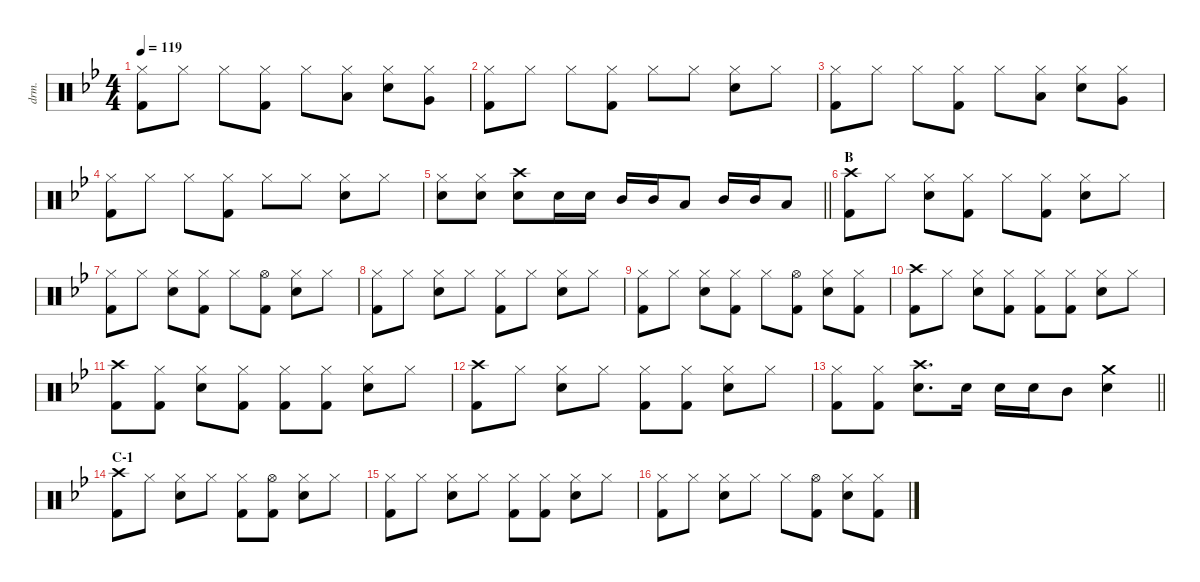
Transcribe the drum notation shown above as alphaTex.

\defaultSystemsLayout 4
\hideDynamics
\bracketExtendMode nobrackets
\otherSystemsTrackNameOrientation horizontal
\track ("Drums" "drm.") {instrument percussion}
\staff {score}
\articulation defaults
\ts (4 4)
\tempo 119
\clef neutral
\ks bb
("Hi-Hat (closed)"{acc forcenatural} "Kick (hit) 2"{acc forcenatural}).8{dy f} "Hi-Hat (closed)"{acc forcenatural}.8 "Hi-Hat (closed)"{acc forcenatural}.8 ("Hi-Hat (closed)"{acc forcenatural} "Kick (hit) 2"{acc forcenatural}).8 "Hi-Hat (closed)"{acc forcenatural}.8 ("Low Tom (hit)"{acc forcenatural} "Hi-Hat (closed)"{acc forcenatural}).8 ("Hi-Hat (closed)"{acc forcenatural} "Snare (hit) 2"{acc forcenatural}).8 ("Very Low Tom (hit)"{acc forcenatural} "Hi-Hat (closed)"{acc forcenatural}).8 |
("Hi-Hat (closed)"{acc forcenatural} "Kick (hit) 2"{acc forcenatural}).8 "Hi-Hat (closed)"{acc forcenatural}.8 "Hi-Hat (closed)"{acc forcenatural}.8 ("Hi-Hat (closed)"{acc forcenatural} "Kick (hit) 2"{acc forcenatural}).8 "Hi-Hat (closed)"{acc forcenatural}.8 "Hi-Hat (closed)"{acc forcenatural}.8 ("Hi-Hat (closed)"{acc forcenatural} "Snare (hit) 2"{acc forcenatural}).8 "Hi-Hat (closed)"{acc forcenatural}.8 |
("Hi-Hat (closed)"{acc forcenatural} "Kick (hit) 2"{acc forcenatural}).8 "Hi-Hat (closed)"{acc forcenatural}.8 "Hi-Hat (closed)"{acc forcenatural}.8 ("Hi-Hat (closed)"{acc forcenatural} "Kick (hit) 2"{acc forcenatural}).8 "Hi-Hat (closed)"{acc forcenatural}.8 ("Low Tom (hit)"{acc forcenatural} "Hi-Hat (closed)"{acc forcenatural}).8 ("Hi-Hat (closed)"{acc forcenatural} "Snare (hit) 2"{acc forcenatural}).8 ("Very Low Tom (hit)"{acc forcenatural} "Hi-Hat (closed)"{acc forcenatural}).8 |
("Hi-Hat (closed)"{acc forcenatural} "Kick (hit) 2"{acc forcenatural}).8 "Hi-Hat (closed)"{acc forcenatural}.8 "Hi-Hat (closed)"{acc forcenatural}.8 ("Hi-Hat (closed)"{acc forcenatural} "Kick (hit) 2"{acc forcenatural}).8 "Hi-Hat (closed)"{acc forcenatural}.8 "Hi-Hat (closed)"{acc forcenatural}.8 ("Hi-Hat (closed)"{acc forcenatural} "Snare (hit) 2"{acc forcenatural}).8 "Hi-Hat (closed)"{acc forcenatural}.8 |
\barLineRight lightlight
("Hi-Hat (closed)"{acc forcenatural} "Snare (hit) 2"{acc forcenatural}).8 ("Hi-Hat (closed)"{acc forcenatural} "Snare (hit) 2"{acc forcenatural}).8 ("Crash high (hit)"{acc forcenatural} "Snare (hit) 2"{acc forcenatural}).8 "Snare (hit) 2"{acc forcenatural}.16 "Snare (hit) 2"{acc forcenatural}.16 "Mid Tom (hit)"{acc forcenatural}.16 "Mid Tom (hit)"{acc forcenatural}.16 "Low Tom (hit)"{acc forcenatural}.8 "Mid Tom (hit)"{acc forcenatural}.16 "Mid Tom (hit)"{acc forcenatural}.16 "Low Tom (hit)"{acc forcenatural}.8 |
\section ("" "B")
("Crash high (hit)"{acc forcenatural} "Kick (hit) 2"{acc forcenatural}).8 "Hi-Hat (closed)"{acc forcenatural}.8 ("Hi-Hat (closed)"{acc forcenatural} "Snare (hit) 2"{acc forcenatural}).8 ("Hi-Hat (closed)"{acc forcenatural} "Kick (hit) 2"{acc forcenatural}).8 "Hi-Hat (closed)"{acc forcenatural}.8 ("Hi-Hat (closed)"{acc forcenatural} "Kick (hit) 2"{acc forcenatural}).8 ("Hi-Hat (closed)"{acc forcenatural} "Snare (hit) 2"{acc forcenatural}).8 "Hi-Hat (closed)"{acc forcenatural}.8 |
("Hi-Hat (closed)"{acc forcenatural} "Kick (hit) 2"{acc forcenatural}).8 "Hi-Hat (closed)"{acc forcenatural}.8 ("Hi-Hat (closed)"{acc forcenatural} "Snare (hit) 2"{acc forcenatural}).8 ("Hi-Hat (closed)"{acc forcenatural} "Kick (hit) 2"{acc forcenatural}).8 "Hi-Hat (closed)"{acc forcenatural}.8 ("Hi-Hat (open)"{acc forcenatural} "Kick (hit) 2"{acc forcenatural}).8 ("Hi-Hat (closed)"{acc forcenatural} "Snare (hit) 2"{acc forcenatural}).8 "Hi-Hat (closed)"{acc forcenatural}.8 |
("Hi-Hat (closed)"{acc forcenatural} "Kick (hit) 2"{acc forcenatural}).8 "Hi-Hat (closed)"{acc forcenatural}.8 ("Hi-Hat (closed)"{acc forcenatural} "Snare (hit) 2"{acc forcenatural}).8 "Hi-Hat (closed)"{acc forcenatural}.8 ("Hi-Hat (closed)"{acc forcenatural} "Kick (hit) 2"{acc forcenatural}).8 "Hi-Hat (closed)"{acc forcenatural}.8 ("Hi-Hat (closed)"{acc forcenatural} "Snare (hit) 2"{acc forcenatural}).8 "Hi-Hat (closed)"{acc forcenatural}.8 |
("Hi-Hat (closed)"{acc forcenatural} "Kick (hit) 2"{acc forcenatural}).8 "Hi-Hat (closed)"{acc forcenatural}.8 ("Hi-Hat (closed)"{acc forcenatural} "Snare (hit) 2"{acc forcenatural}).8 ("Hi-Hat (closed)"{acc forcenatural} "Kick (hit) 2"{acc forcenatural}).8 "Hi-Hat (closed)"{acc forcenatural}.8 ("Hi-Hat (open)"{acc forcenatural} "Kick (hit) 2"{acc forcenatural}).8 ("Hi-Hat (closed)"{acc forcenatural} "Snare (hit) 2"{acc forcenatural}).8 ("Hi-Hat (closed)"{acc forcenatural} "Kick (hit) 2"{acc forcenatural}).8 |
("Crash high (hit)"{acc forcenatural} "Kick (hit) 2"{acc forcenatural}).8 "Hi-Hat (closed)"{acc forcenatural}.8 ("Hi-Hat (closed)"{acc forcenatural} "Snare (hit) 2"{acc forcenatural}).8 ("Hi-Hat (closed)"{acc forcenatural} "Kick (hit) 2"{acc forcenatural}).8 ("Hi-Hat (closed)"{acc forcenatural} "Kick (hit) 2"{acc forcenatural}).8 ("Hi-Hat (closed)"{acc forcenatural} "Kick (hit) 2"{acc forcenatural}).8 ("Hi-Hat (closed)"{acc forcenatural} "Snare (hit) 2"{acc forcenatural}).8 "Hi-Hat (closed)"{acc forcenatural}.8 |
("Crash high (hit)"{acc forcenatural} "Kick (hit) 2"{acc forcenatural}).8 ("Hi-Hat (closed)"{acc forcenatural} "Kick (hit) 2"{acc forcenatural}).8 ("Hi-Hat (closed)"{acc forcenatural} "Snare (hit) 2"{acc forcenatural}).8 ("Hi-Hat (closed)"{acc forcenatural} "Kick (hit) 2"{acc forcenatural}).8 ("Hi-Hat (closed)"{acc forcenatural} "Kick (hit) 2"{acc forcenatural}).8 ("Hi-Hat (closed)"{acc forcenatural} "Kick (hit) 2"{acc forcenatural}).8 ("Hi-Hat (closed)"{acc forcenatural} "Snare (hit) 2"{acc forcenatural}).8 "Hi-Hat (closed)"{acc forcenatural}.8 |
("Crash high (hit)"{acc forcenatural} "Kick (hit) 2"{acc forcenatural}).8 "Hi-Hat (closed)"{acc forcenatural}.8 ("Hi-Hat (closed)"{acc forcenatural} "Snare (hit) 2"{acc forcenatural}).8 "Hi-Hat (closed)"{acc forcenatural}.8 ("Hi-Hat (closed)"{acc forcenatural} "Kick (hit) 2"{acc forcenatural}).8 ("Hi-Hat (closed)"{acc forcenatural} "Kick (hit) 2"{acc forcenatural}).8 ("Hi-Hat (closed)"{acc forcenatural} "Snare (hit) 2"{acc forcenatural}).8 "Hi-Hat (closed)"{acc forcenatural}.8 |
\barLineRight lightlight
("Hi-Hat (closed)"{acc forcenatural} "Kick (hit) 2"{acc forcenatural}).8 ("Hi-Hat (closed)"{acc forcenatural} "Kick (hit) 2"{acc forcenatural}).8 ("Crash high (hit)"{acc forcenatural} "Snare (hit) 2"{acc forcenatural}).8{d} "Snare (hit) 2"{acc forcenatural}.16 "Snare (hit) 2"{acc forcenatural}.16 "Snare (hit) 2"{acc forcenatural}.16 "Mid Tom (hit)"{acc forcenatural}.8 ("Crash medium (hit)"{acc forcenatural} "Snare (hit) 2"{acc forcenatural}).4 |
\section ("" "C-1")
("Crash high (hit)"{acc forcenatural} "Kick (hit) 2"{acc forcenatural}).8 "Hi-Hat (closed)"{acc forcenatural}.8 ("Hi-Hat (closed)"{acc forcenatural} "Snare (hit) 2"{acc forcenatural}).8 "Hi-Hat (closed)"{acc forcenatural}.8 ("Hi-Hat (closed)"{acc forcenatural} "Kick (hit) 2"{acc forcenatural}).8 ("Hi-Hat (open)"{acc forcenatural} "Kick (hit) 2"{acc forcenatural}).8 ("Hi-Hat (closed)"{acc forcenatural} "Snare (hit) 2"{acc forcenatural}).8 "Hi-Hat (closed)"{acc forcenatural}.8 |
("Hi-Hat (closed)"{acc forcenatural} "Kick (hit) 2"{acc forcenatural}).8 "Hi-Hat (closed)"{acc forcenatural}.8 ("Hi-Hat (closed)"{acc forcenatural} "Snare (hit) 2"{acc forcenatural}).8 "Hi-Hat (closed)"{acc forcenatural}.8 ("Hi-Hat (closed)"{acc forcenatural} "Kick (hit) 2"{acc forcenatural}).8 ("Hi-Hat (closed)"{acc forcenatural} "Kick (hit) 2"{acc forcenatural}).8 ("Hi-Hat (closed)"{acc forcenatural} "Snare (hit) 2"{acc forcenatural}).8 "Hi-Hat (closed)"{acc forcenatural}.8 |
("Hi-Hat (closed)"{acc forcenatural} "Kick (hit) 2"{acc forcenatural}).8 "Hi-Hat (closed)"{acc forcenatural}.8 ("Hi-Hat (closed)"{acc forcenatural} "Snare (hit) 2"{acc forcenatural}).8 "Hi-Hat (closed)"{acc forcenatural}.8 "Hi-Hat (closed)"{acc forcenatural}.8 ("Hi-Hat (open)"{acc forcenatural} "Kick (hit) 2"{acc forcenatural}).8 ("Hi-Hat (closed)"{acc forcenatural} "Snare (hit) 2"{acc forcenatural}).8 ("Hi-Hat (closed)"{acc forcenatural} "Kick (hit) 2"{acc forcenatural}).8
